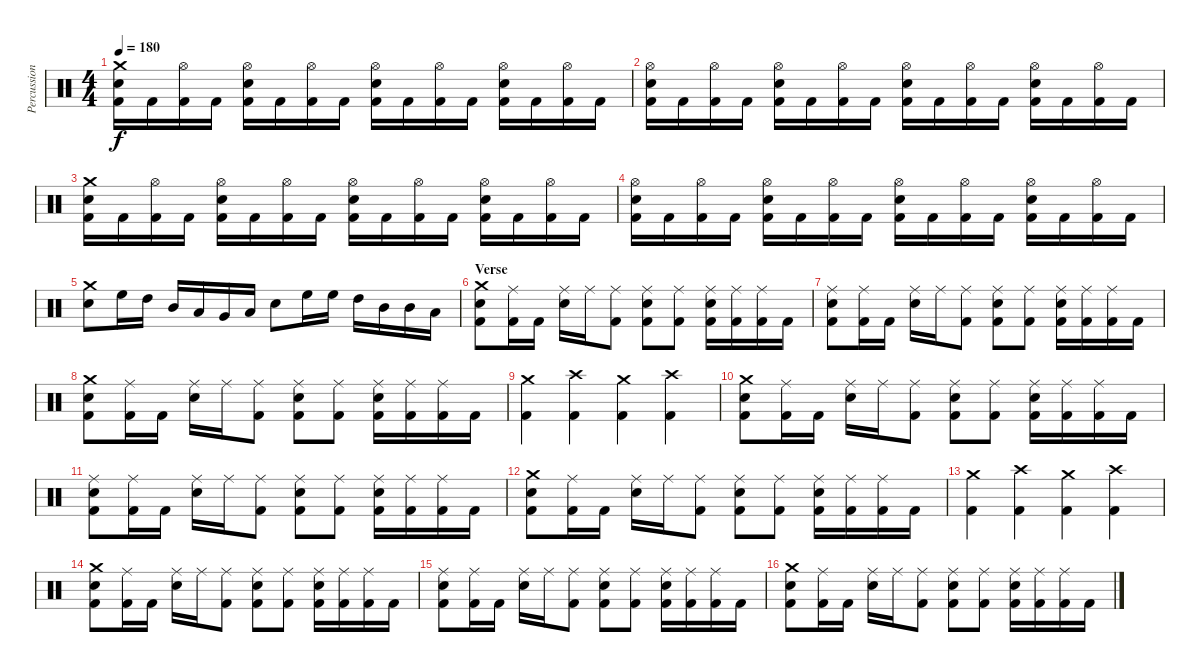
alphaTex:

\track ("Percussion" "Percussion") {instrument percussion}
\staff {score}
\articulation defaults
\ts (4 4)
\tempo 180
\clef neutral
\ks c
("Crash medium (hit)" "Snare (hit) 2" "Kick (hit) 2").16{dy f} "Kick (hit) 2".16 ("Hi-Hat (open)" "Kick (hit) 2").16 "Kick (hit) 2".16 ("Hi-Hat (open)" "Snare (hit) 2" "Kick (hit) 2").16 "Kick (hit) 2".16 ("Hi-Hat (open)" "Kick (hit) 2").16 "Kick (hit) 2".16 ("Hi-Hat (open)" "Snare (hit) 2" "Kick (hit) 2").16 "Kick (hit) 2".16 ("Hi-Hat (open)" "Kick (hit) 2").16 "Kick (hit) 2".16 ("Hi-Hat (open)" "Snare (hit) 2" "Kick (hit) 2").16 "Kick (hit) 2".16 ("Hi-Hat (open)" "Kick (hit) 2").16 "Kick (hit) 2".16 |
("Hi-Hat (open)" "Snare (hit) 2" "Kick (hit) 2").16 "Kick (hit) 2".16 ("Hi-Hat (open)" "Kick (hit) 2").16 "Kick (hit) 2".16 ("Hi-Hat (open)" "Snare (hit) 2" "Kick (hit) 2").16 "Kick (hit) 2".16 ("Hi-Hat (open)" "Kick (hit) 2").16 "Kick (hit) 2".16 ("Hi-Hat (open)" "Snare (hit) 2" "Kick (hit) 2").16 "Kick (hit) 2".16 ("Hi-Hat (open)" "Kick (hit) 2").16 "Kick (hit) 2".16 ("Hi-Hat (open)" "Snare (hit) 2" "Kick (hit) 2").16 "Kick (hit) 2".16 ("Hi-Hat (open)" "Kick (hit) 2").16 "Kick (hit) 2".16 |
("Crash medium (hit)" "Snare (hit) 2" "Kick (hit) 2").16 "Kick (hit) 2".16 ("Hi-Hat (open)" "Kick (hit) 2").16 "Kick (hit) 2".16 ("Hi-Hat (open)" "Snare (hit) 2" "Kick (hit) 2").16 "Kick (hit) 2".16 ("Hi-Hat (open)" "Kick (hit) 2").16 "Kick (hit) 2".16 ("Hi-Hat (open)" "Snare (hit) 2" "Kick (hit) 2").16 "Kick (hit) 2".16 ("Hi-Hat (open)" "Kick (hit) 2").16 "Kick (hit) 2".16 ("Hi-Hat (open)" "Snare (hit) 2" "Kick (hit) 2").16 "Kick (hit) 2".16 ("Hi-Hat (open)" "Kick (hit) 2").16 "Kick (hit) 2".16 |
("Hi-Hat (open)" "Snare (hit) 2" "Kick (hit) 2").16 "Kick (hit) 2".16 ("Hi-Hat (open)" "Kick (hit) 2").16 "Kick (hit) 2".16 ("Hi-Hat (open)" "Snare (hit) 2" "Kick (hit) 2").16 "Kick (hit) 2".16 ("Hi-Hat (open)" "Kick (hit) 2").16 "Kick (hit) 2".16 ("Hi-Hat (open)" "Snare (hit) 2" "Kick (hit) 2").16 "Kick (hit) 2".16 ("Hi-Hat (open)" "Kick (hit) 2").16 "Kick (hit) 2".16 ("Hi-Hat (open)" "Snare (hit) 2" "Kick (hit) 2").16 "Kick (hit) 2".16 ("Hi-Hat (open)" "Kick (hit) 2").16 "Kick (hit) 2".16 |
("Crash medium (hit)" "Snare (hit) 2").8 "High Floor Tom (hit)".16 "High Tom (hit)".16 "Mid Tom (hit)".16 "Low Tom (hit)".16 "Very Low Tom (hit)".16 "Low Floor Tom (hit)".16 "Snare (hit) 2".8 "High Floor Tom (hit)".16 "High Floor Tom (hit)".16 "High Tom (hit)".16 "Mid Tom (hit)".16 "Mid Tom (hit)".16 "Low Tom (hit)".16 |
\section ("" "Verse")
("Crash medium (hit)" "Snare (hit) 2" "Kick (hit) 2").8 ("Ride (middle)" "Kick (hit) 2").16 "Kick (hit) 2".16 ("Ride (middle)" "Snare (hit) 2").16 "Ride (middle)".16 ("Ride (middle)" "Kick (hit) 2").8 ("Ride (middle)" "Snare (hit) 2" "Kick (hit) 2").8 ("Ride (middle)" "Kick (hit) 2").8 ("Ride (middle)" "Snare (hit) 2" "Kick (hit) 2").16 ("Ride (middle)" "Kick (hit) 2").16 ("Ride (middle)" "Kick (hit) 2").16 "Kick (hit) 2".16 |
("Ride (middle)" "Snare (hit) 2" "Kick (hit) 2").8 ("Ride (middle)" "Kick (hit) 2").16 "Kick (hit) 2".16 ("Ride (middle)" "Snare (hit) 2").16 "Ride (middle)".16 ("Ride (middle)" "Kick (hit) 2").8 ("Ride (middle)" "Snare (hit) 2" "Kick (hit) 2").8 ("Ride (middle)" "Kick (hit) 2").8 ("Ride (middle)" "Snare (hit) 2" "Kick (hit) 2").16 ("Ride (middle)" "Kick (hit) 2").16 ("Ride (middle)" "Kick (hit) 2").16 "Kick (hit) 2".16 |
("Crash medium (hit)" "Snare (hit) 2" "Kick (hit) 2").8 ("Ride (middle)" "Kick (hit) 2").16 "Kick (hit) 2".16 ("Ride (middle)" "Snare (hit) 2").16 "Ride (middle)".16 ("Ride (middle)" "Kick (hit) 2").8 ("Ride (middle)" "Snare (hit) 2" "Kick (hit) 2").8 ("Ride (middle)" "Kick (hit) 2").8 ("Ride (middle)" "Snare (hit) 2" "Kick (hit) 2").16 ("Ride (middle)" "Kick (hit) 2").16 ("Ride (middle)" "Kick (hit) 2").16 "Kick (hit) 2".16 |
("Crash medium (hit)" "Kick (hit) 2").4 ("Crash high (hit)" "Kick (hit) 2").4 ("Crash medium (hit)" "Kick (hit) 2").4 ("Crash high (hit)" "Kick (hit) 2").4 |
("Crash medium (hit)" "Snare (hit) 2" "Kick (hit) 2").8 ("Ride (middle)" "Kick (hit) 2").16 "Kick (hit) 2".16 ("Ride (middle)" "Snare (hit) 2").16 "Ride (middle)".16 ("Ride (middle)" "Kick (hit) 2").8 ("Ride (middle)" "Snare (hit) 2" "Kick (hit) 2").8 ("Ride (middle)" "Kick (hit) 2").8 ("Ride (middle)" "Snare (hit) 2" "Kick (hit) 2").16 ("Ride (middle)" "Kick (hit) 2").16 ("Ride (middle)" "Kick (hit) 2").16 "Kick (hit) 2".16 |
("Ride (middle)" "Snare (hit) 2" "Kick (hit) 2").8 ("Ride (middle)" "Kick (hit) 2").16 "Kick (hit) 2".16 ("Ride (middle)" "Snare (hit) 2").16 "Ride (middle)".16 ("Ride (middle)" "Kick (hit) 2").8 ("Ride (middle)" "Snare (hit) 2" "Kick (hit) 2").8 ("Ride (middle)" "Kick (hit) 2").8 ("Ride (middle)" "Snare (hit) 2" "Kick (hit) 2").16 ("Ride (middle)" "Kick (hit) 2").16 ("Ride (middle)" "Kick (hit) 2").16 "Kick (hit) 2".16 |
("Crash medium (hit)" "Snare (hit) 2" "Kick (hit) 2").8 ("Ride (middle)" "Kick (hit) 2").16 "Kick (hit) 2".16 ("Ride (middle)" "Snare (hit) 2").16 "Ride (middle)".16 ("Ride (middle)" "Kick (hit) 2").8 ("Ride (middle)" "Snare (hit) 2" "Kick (hit) 2").8 ("Ride (middle)" "Kick (hit) 2").8 ("Ride (middle)" "Snare (hit) 2" "Kick (hit) 2").16 ("Ride (middle)" "Kick (hit) 2").16 ("Ride (middle)" "Kick (hit) 2").16 "Kick (hit) 2".16 |
("Crash medium (hit)" "Kick (hit) 2").4 ("Crash high (hit)" "Kick (hit) 2").4 ("Crash medium (hit)" "Kick (hit) 2").4 ("Crash high (hit)" "Kick (hit) 2").4 |
("Crash medium (hit)" "Snare (hit) 2" "Kick (hit) 2").8 ("Ride (middle)" "Kick (hit) 2").16 "Kick (hit) 2".16 ("Ride (middle)" "Snare (hit) 2").16 "Ride (middle)".16 ("Ride (middle)" "Kick (hit) 2").8 ("Ride (middle)" "Snare (hit) 2" "Kick (hit) 2").8 ("Ride (middle)" "Kick (hit) 2").8 ("Ride (middle)" "Snare (hit) 2" "Kick (hit) 2").16 ("Ride (middle)" "Kick (hit) 2").16 ("Ride (middle)" "Kick (hit) 2").16 "Kick (hit) 2".16 |
("Ride (middle)" "Snare (hit) 2" "Kick (hit) 2").8 ("Ride (middle)" "Kick (hit) 2").16 "Kick (hit) 2".16 ("Ride (middle)" "Snare (hit) 2").16 "Ride (middle)".16 ("Ride (middle)" "Kick (hit) 2").8 ("Ride (middle)" "Snare (hit) 2" "Kick (hit) 2").8 ("Ride (middle)" "Kick (hit) 2").8 ("Ride (middle)" "Snare (hit) 2" "Kick (hit) 2").16 ("Ride (middle)" "Kick (hit) 2").16 ("Ride (middle)" "Kick (hit) 2").16 "Kick (hit) 2".16 |
("Crash medium (hit)" "Snare (hit) 2" "Kick (hit) 2").8 ("Ride (middle)" "Kick (hit) 2").16 "Kick (hit) 2".16 ("Ride (middle)" "Snare (hit) 2").16 "Ride (middle)".16 ("Ride (middle)" "Kick (hit) 2").8 ("Ride (middle)" "Snare (hit) 2" "Kick (hit) 2").8 ("Ride (middle)" "Kick (hit) 2").8 ("Ride (middle)" "Snare (hit) 2" "Kick (hit) 2").16 ("Ride (middle)" "Kick (hit) 2").16 ("Ride (middle)" "Kick (hit) 2").16 "Kick (hit) 2".16
